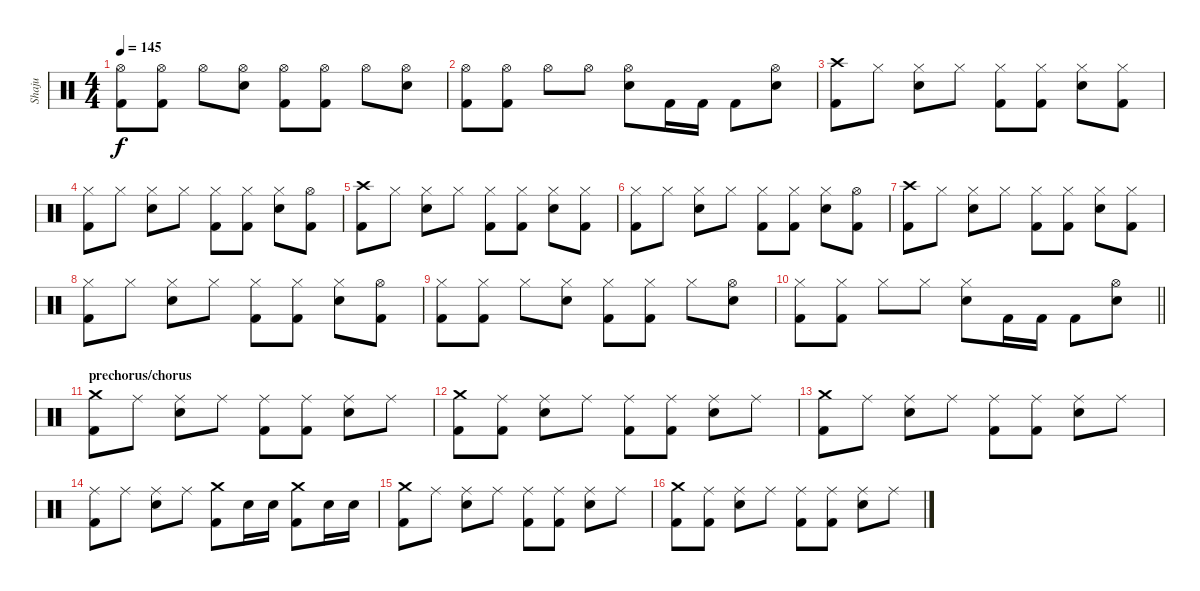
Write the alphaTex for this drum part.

\track ("Shaju" "Shaju") {instrument percussion}
\staff {score}
\articulation defaults
\ts (4 4)
\tempo 145
\clef neutral
\ks c
("Hi-Hat (open)" "Kick (hit) 2").8{dy f} ("Hi-Hat (open)" "Kick (hit) 2").8 "Hi-Hat (open)".8 ("Hi-Hat (open)" "Electric Snare (hit)").8 ("Hi-Hat (open)" "Kick (hit) 2").8 ("Hi-Hat (open)" "Kick (hit) 2").8 "Hi-Hat (open)".8 ("Hi-Hat (open)" "Electric Snare (hit)").8 |
("Hi-Hat (open)" "Kick (hit) 2").8 ("Hi-Hat (open)" "Kick (hit) 2").8 "Hi-Hat (open)".8 "Hi-Hat (open)".8 ("Hi-Hat (open)" "Electric Snare (hit)").8 "Kick (hit) 2".16 "Kick (hit) 2".16 "Kick (hit) 2".8 ("Hi-Hat (open)" "Electric Snare (hit)").8 |
("Crash high (hit)" "Kick (hit) 2").8 "Hi-Hat (closed)".8 ("Hi-Hat (closed)" "Electric Snare (hit)").8 "Hi-Hat (closed)".8 ("Hi-Hat (closed)" "Kick (hit) 2").8 ("Hi-Hat (closed)" "Kick (hit) 2").8 ("Hi-Hat (closed)" "Electric Snare (hit)").8 ("Hi-Hat (closed)" "Kick (hit) 2").8 |
("Hi-Hat (closed)" "Kick (hit) 2").8 "Hi-Hat (closed)".8 ("Hi-Hat (closed)" "Electric Snare (hit)").8 "Hi-Hat (closed)".8 ("Hi-Hat (closed)" "Kick (hit) 2").8 ("Hi-Hat (closed)" "Kick (hit) 2").8 ("Hi-Hat (closed)" "Electric Snare (hit)").8 ("Hi-Hat (open)" "Kick (hit) 2").8 |
("Crash high (hit)" "Kick (hit) 2").8 "Hi-Hat (closed)".8 ("Hi-Hat (closed)" "Electric Snare (hit)").8 "Hi-Hat (closed)".8 ("Hi-Hat (closed)" "Kick (hit) 2").8 ("Hi-Hat (closed)" "Kick (hit) 2").8 ("Hi-Hat (closed)" "Electric Snare (hit)").8 ("Hi-Hat (closed)" "Kick (hit) 2").8 |
("Hi-Hat (closed)" "Kick (hit) 2").8 "Hi-Hat (closed)".8 ("Hi-Hat (closed)" "Electric Snare (hit)").8 "Hi-Hat (closed)".8 ("Hi-Hat (closed)" "Kick (hit) 2").8 ("Hi-Hat (closed)" "Kick (hit) 2").8 ("Hi-Hat (closed)" "Electric Snare (hit)").8 ("Hi-Hat (open)" "Kick (hit) 2").8 |
("Crash high (hit)" "Kick (hit) 2").8 "Hi-Hat (closed)".8 ("Hi-Hat (closed)" "Electric Snare (hit)").8 "Hi-Hat (closed)".8 ("Hi-Hat (closed)" "Kick (hit) 2").8 ("Hi-Hat (closed)" "Kick (hit) 2").8 ("Hi-Hat (closed)" "Electric Snare (hit)").8 ("Hi-Hat (closed)" "Kick (hit) 2").8 |
("Hi-Hat (closed)" "Kick (hit) 2").8 "Hi-Hat (closed)".8 ("Hi-Hat (closed)" "Electric Snare (hit)").8 "Hi-Hat (closed)".8 ("Hi-Hat (closed)" "Kick (hit) 2").8 ("Hi-Hat (closed)" "Kick (hit) 2").8 ("Hi-Hat (closed)" "Electric Snare (hit)").8 ("Hi-Hat (open)" "Kick (hit) 2").8 |
("Hi-Hat (closed)" "Kick (hit) 2").8 ("Hi-Hat (closed)" "Kick (hit) 2").8 "Hi-Hat (closed)".8 ("Hi-Hat (closed)" "Electric Snare (hit)").8 ("Hi-Hat (closed)" "Kick (hit) 2").8 ("Hi-Hat (closed)" "Kick (hit) 2").8 "Hi-Hat (closed)".8 ("Hi-Hat (open)" "Electric Snare (hit)").8 |
\barLineRight lightlight
("Hi-Hat (closed)" "Kick (hit) 2").8 ("Hi-Hat (closed)" "Kick (hit) 2").8 "Hi-Hat (closed)".8 "Hi-Hat (closed)".8 ("Hi-Hat (closed)" "Electric Snare (hit)").8 "Kick (hit) 2".16 "Kick (hit) 2".16 "Kick (hit) 2".8 ("Hi-Hat (open)" "Electric Snare (hit)").8 |
\section ("" "prechorus/chorus")
("Crash medium (hit)" "Kick (hit) 2").8 "Ride (middle)".8 ("Ride (middle)" "Electric Snare (hit)").8 "Ride (middle)".8 ("Ride (middle)" "Kick (hit) 2").8 ("Ride (middle)" "Kick (hit) 2").8 ("Ride (middle)" "Electric Snare (hit)").8 "Ride (middle)".8 |
("Crash medium (hit)" "Kick (hit) 2").8 ("Ride (middle)" "Kick (hit) 2").8 ("Ride (middle)" "Electric Snare (hit)").8 "Ride (middle)".8 ("Ride (middle)" "Kick (hit) 2").8 ("Ride (middle)" "Kick (hit) 2").8 ("Ride (middle)" "Electric Snare (hit)").8 "Ride (middle)".8 |
("Crash medium (hit)" "Kick (hit) 2").8 "Ride (middle)".8 ("Ride (middle)" "Electric Snare (hit)").8 "Ride (middle)".8 ("Ride (middle)" "Kick (hit) 2").8 ("Ride (middle)" "Kick (hit) 2").8 ("Ride (middle)" "Electric Snare (hit)").8 "Ride (middle)".8 |
("Ride (middle)" "Kick (hit) 2").8 "Ride (middle)".8 ("Ride (middle)" "Electric Snare (hit)").8 "Ride (middle)".8 ("Crash medium (hit)" "Kick (hit) 2").8 "Electric Snare (hit)".16 "Electric Snare (hit)".16 ("Crash medium (hit)" "Kick (hit) 2").8 "Electric Snare (hit)".16 "Electric Snare (hit)".16 |
("Crash medium (hit)" "Kick (hit) 2").8 "Ride (middle)".8 ("Ride (middle)" "Electric Snare (hit)").8 "Ride (middle)".8 ("Ride (middle)" "Kick (hit) 2").8 ("Ride (middle)" "Kick (hit) 2").8 ("Ride (middle)" "Electric Snare (hit)").8 "Ride (middle)".8 |
("Crash medium (hit)" "Kick (hit) 2").8 ("Ride (middle)" "Kick (hit) 2").8 ("Ride (middle)" "Electric Snare (hit)").8 "Ride (middle)".8 ("Ride (middle)" "Kick (hit) 2").8 ("Ride (middle)" "Kick (hit) 2").8 ("Ride (middle)" "Electric Snare (hit)").8 "Ride (middle)".8
